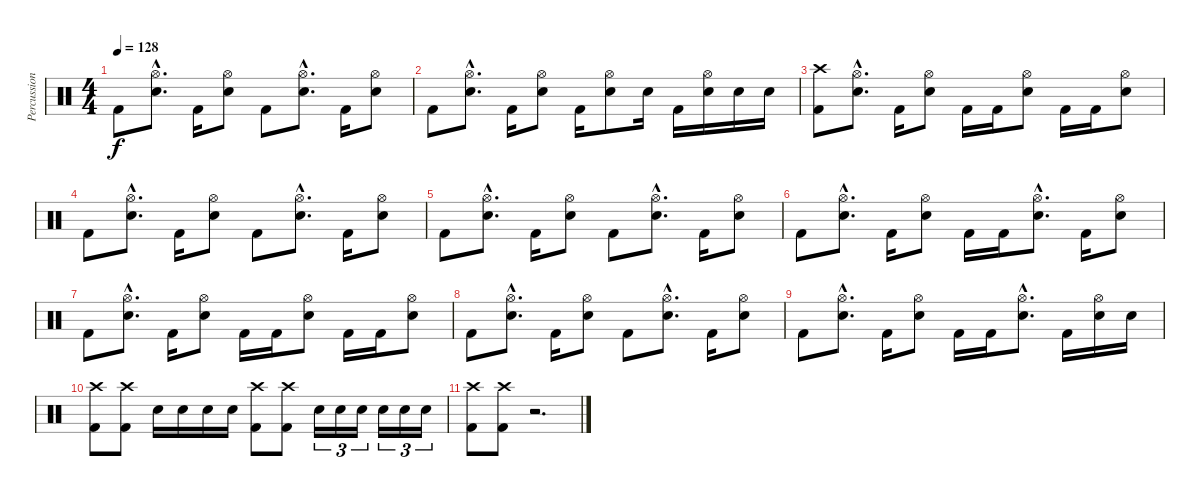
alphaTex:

\track ("Percussions" "Percussion") {instrument percussion}
\staff {score}
\articulation defaults
\ts (4 4)
\tempo 128
\clef neutral
\ks c "Kick (hit) 2".8{dy f}
("Hi-Hat (open)"{hac} "Electric Snare (hit)"{hac}).8{d} "Kick (hit) 2".16 ("Hi-Hat (open)" "Electric Snare (hit)").8 "Kick (hit) 2".8 ("Hi-Hat (open)"{hac} "Electric Snare (hit)"{hac}).8{d} "Kick (hit) 2".16 ("Hi-Hat (open)" "Electric Snare (hit)").8 |
"Kick (hit) 2".8 ("Hi-Hat (open)"{hac} "Electric Snare (hit)"{hac}).8{d} "Kick (hit) 2".16 ("Hi-Hat (open)" "Electric Snare (hit)").8 "Kick (hit) 2".16 ("Hi-Hat (open)" "Electric Snare (hit)").8 "Electric Snare (hit)".16 "Kick (hit) 2".16 ("Hi-Hat (open)" "Electric Snare (hit)").16 "Electric Snare (hit)".16 "Electric Snare (hit)".16 |
("Crash high (hit)" "Kick (hit) 2").8 ("Hi-Hat (open)"{hac} "Electric Snare (hit)"{hac}).8{d} "Kick (hit) 2".16 ("Hi-Hat (open)" "Electric Snare (hit)").8 "Kick (hit) 2".16 "Kick (hit) 2".16 ("Hi-Hat (open)" "Electric Snare (hit)").8 "Kick (hit) 2".16 "Kick (hit) 2".16 ("Hi-Hat (open)" "Electric Snare (hit)").8 |
"Kick (hit) 2".8 ("Hi-Hat (open)"{hac} "Electric Snare (hit)"{hac}).8{d} "Kick (hit) 2".16 ("Hi-Hat (open)" "Electric Snare (hit)").8 "Kick (hit) 2".8 ("Hi-Hat (open)"{hac} "Electric Snare (hit)"{hac}).8{d} "Kick (hit) 2".16 ("Hi-Hat (open)" "Electric Snare (hit)").8 |
"Kick (hit) 2".8 ("Hi-Hat (open)"{hac} "Electric Snare (hit)"{hac}).8{d} "Kick (hit) 2".16 ("Hi-Hat (open)" "Electric Snare (hit)").8 "Kick (hit) 2".8 ("Hi-Hat (open)"{hac} "Electric Snare (hit)"{hac}).8{d} "Kick (hit) 2".16 ("Hi-Hat (open)" "Electric Snare (hit)").8 |
"Kick (hit) 2".8 ("Hi-Hat (open)"{hac} "Electric Snare (hit)"{hac}).8{d} "Kick (hit) 2".16 ("Hi-Hat (open)" "Electric Snare (hit)").8 "Kick (hit) 2".16 "Kick (hit) 2".16 ("Hi-Hat (open)"{hac} "Electric Snare (hit)"{hac}).8{d} "Kick (hit) 2".16 ("Hi-Hat (open)" "Electric Snare (hit)").8 |
"Kick (hit) 2".8 ("Hi-Hat (open)"{hac} "Electric Snare (hit)"{hac}).8{d} "Kick (hit) 2".16 ("Hi-Hat (open)" "Electric Snare (hit)").8 "Kick (hit) 2".16 "Kick (hit) 2".16 ("Hi-Hat (open)" "Electric Snare (hit)").8 "Kick (hit) 2".16 "Kick (hit) 2".16 ("Hi-Hat (open)" "Electric Snare (hit)").8 |
"Kick (hit) 2".8 ("Hi-Hat (open)"{hac} "Electric Snare (hit)"{hac}).8{d} "Kick (hit) 2".16 ("Hi-Hat (open)" "Electric Snare (hit)").8 "Kick (hit) 2".8 ("Hi-Hat (open)"{hac} "Electric Snare (hit)"{hac}).8{d} "Kick (hit) 2".16 ("Hi-Hat (open)" "Electric Snare (hit)").8 |
"Kick (hit) 2".8 ("Hi-Hat (open)"{hac} "Electric Snare (hit)"{hac}).8{d} "Kick (hit) 2".16 ("Hi-Hat (open)" "Electric Snare (hit)").8 "Kick (hit) 2".16 "Kick (hit) 2".16 ("Hi-Hat (open)"{hac} "Electric Snare (hit)"{hac}).8{d} "Kick (hit) 2".16 ("Hi-Hat (open)" "Electric Snare (hit)").16 "Electric Snare (hit)".16 |
("Crash high (hit)" "Kick (hit) 2").8 ("Crash high (hit)" "Kick (hit) 2").8 "Electric Snare (hit)".16 "Electric Snare (hit)".16 "Electric Snare (hit)".16 "Electric Snare (hit)".16 ("Crash high (hit)" "Kick (hit) 2").8 ("Crash high (hit)" "Kick (hit) 2").8 "Electric Snare (hit)".16{tu (3 2)} "Electric Snare (hit)".16{tu (3 2)} "Electric Snare (hit)".16{tu (3 2)} "Electric Snare (hit)".16{tu (3 2)} "Electric Snare (hit)".16{tu (3 2)} "Electric Snare (hit)".16{tu (3 2)} |
("Crash high (hit)" "Kick (hit) 2").8 ("Crash high (hit)" "Kick (hit) 2").8 r.2{d}
